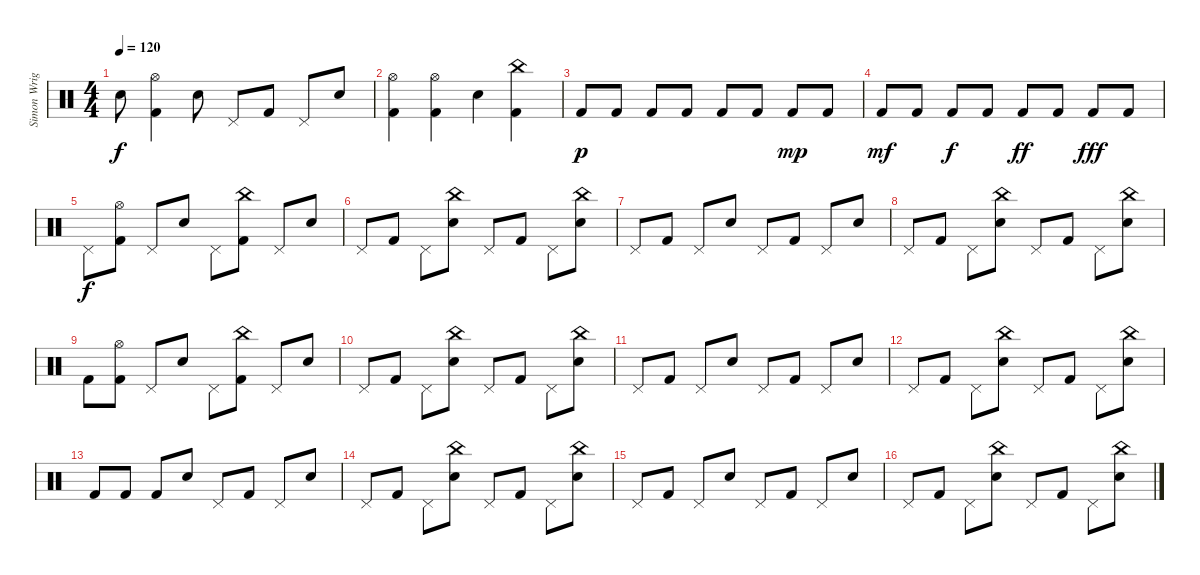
\track ("Simon Wright (i think)" "Simon Wrig") {instrument percussion}
\staff {score}
\articulation defaults
\ts (4 4)
\tempo 120
\clef neutral
\ks c "Snare (hit) 2".8{dy f}
("Kick (hit) 2" "Hi-Hat (open)").4 "Snare (hit) 2".8 "Pedal Hi-Hat (hit)".8 "Kick (hit) 2".8 "Pedal Hi-Hat (hit)".8 "Snare (hit) 2".8 |
("Kick (hit) 2" "Hi-Hat (open)").4 ("Kick (hit) 2" "Hi-Hat (open)").4 "Snare (hit) 2".4 ("Kick (hit) 2" "China (hit)").4 |
"Kick (hit) 2".8{dy p} "Kick (hit) 2".8 "Kick (hit) 2".8 "Kick (hit) 2".8 "Kick (hit) 2".8 "Kick (hit) 2".8 "Kick (hit) 2".8{dy mp} "Kick (hit) 2".8 |
"Kick (hit) 2".8{dy mf} "Kick (hit) 2".8 "Kick (hit) 2".8{dy f} "Kick (hit) 2".8 "Kick (hit) 2".8{dy ff} "Kick (hit) 2".8 "Kick (hit) 2".8{dy fff} "Kick (hit) 2".8 |
"Pedal Hi-Hat (hit)".8{dy f} ("Kick (hit) 2" "Hi-Hat (open)").8 "Pedal Hi-Hat (hit)".8 "Snare (hit) 2".8 "Pedal Hi-Hat (hit)".8 ("Kick (hit) 2" "China (hit)").8 "Pedal Hi-Hat (hit)".8 "Snare (hit) 2".8 |
"Pedal Hi-Hat (hit)".8 "Kick (hit) 2".8 "Pedal Hi-Hat (hit)".8 ("Snare (hit) 2" "China (hit)").8 "Pedal Hi-Hat (hit)".8 "Kick (hit) 2".8 "Pedal Hi-Hat (hit)".8 ("Snare (hit) 2" "China (hit)").8 |
"Pedal Hi-Hat (hit)".8 "Kick (hit) 2".8 "Pedal Hi-Hat (hit)".8 "Snare (hit) 2".8 "Pedal Hi-Hat (hit)".8 "Kick (hit) 2".8 "Pedal Hi-Hat (hit)".8 "Snare (hit) 2".8 |
"Pedal Hi-Hat (hit)".8 "Kick (hit) 2".8 "Pedal Hi-Hat (hit)".8 ("Snare (hit) 2" "China (hit)").8 "Pedal Hi-Hat (hit)".8 "Kick (hit) 2".8 "Pedal Hi-Hat (hit)".8 ("Snare (hit) 2" "China (hit)").8 |
"Kick (hit) 2".8 ("Kick (hit) 2" "Hi-Hat (open)").8 "Pedal Hi-Hat (hit)".8 "Snare (hit) 2".8 "Pedal Hi-Hat (hit)".8 ("Kick (hit) 2" "China (hit)").8 "Pedal Hi-Hat (hit)".8 "Snare (hit) 2".8 |
"Pedal Hi-Hat (hit)".8 "Kick (hit) 2".8 "Pedal Hi-Hat (hit)".8 ("Snare (hit) 2" "China (hit)").8 "Pedal Hi-Hat (hit)".8 "Kick (hit) 2".8 "Pedal Hi-Hat (hit)".8 ("Snare (hit) 2" "China (hit)").8 |
"Pedal Hi-Hat (hit)".8 "Kick (hit) 2".8 "Pedal Hi-Hat (hit)".8 "Snare (hit) 2".8 "Pedal Hi-Hat (hit)".8 "Kick (hit) 2".8 "Pedal Hi-Hat (hit)".8 "Snare (hit) 2".8 |
"Pedal Hi-Hat (hit)".8 "Kick (hit) 2".8 "Pedal Hi-Hat (hit)".8 ("Snare (hit) 2" "China (hit)").8 "Pedal Hi-Hat (hit)".8 "Kick (hit) 2".8 "Pedal Hi-Hat (hit)".8 ("Snare (hit) 2" "China (hit)").8 |
"Kick (hit) 2".8 "Kick (hit) 2".8 "Kick (hit) 2".8 "Snare (hit) 2".8 "Pedal Hi-Hat (hit)".8 "Kick (hit) 2".8 "Pedal Hi-Hat (hit)".8 "Snare (hit) 2".8 |
"Pedal Hi-Hat (hit)".8 "Kick (hit) 2".8 "Pedal Hi-Hat (hit)".8 ("Snare (hit) 2" "China (hit)").8 "Pedal Hi-Hat (hit)".8 "Kick (hit) 2".8 "Pedal Hi-Hat (hit)".8 ("Snare (hit) 2" "China (hit)").8 |
"Pedal Hi-Hat (hit)".8 "Kick (hit) 2".8 "Pedal Hi-Hat (hit)".8 "Snare (hit) 2".8 "Pedal Hi-Hat (hit)".8 "Kick (hit) 2".8 "Pedal Hi-Hat (hit)".8 "Snare (hit) 2".8 |
"Pedal Hi-Hat (hit)".8 "Kick (hit) 2".8 "Pedal Hi-Hat (hit)".8 ("Snare (hit) 2" "China (hit)").8 "Pedal Hi-Hat (hit)".8 "Kick (hit) 2".8 "Pedal Hi-Hat (hit)".8 ("Snare (hit) 2" "China (hit)").8
